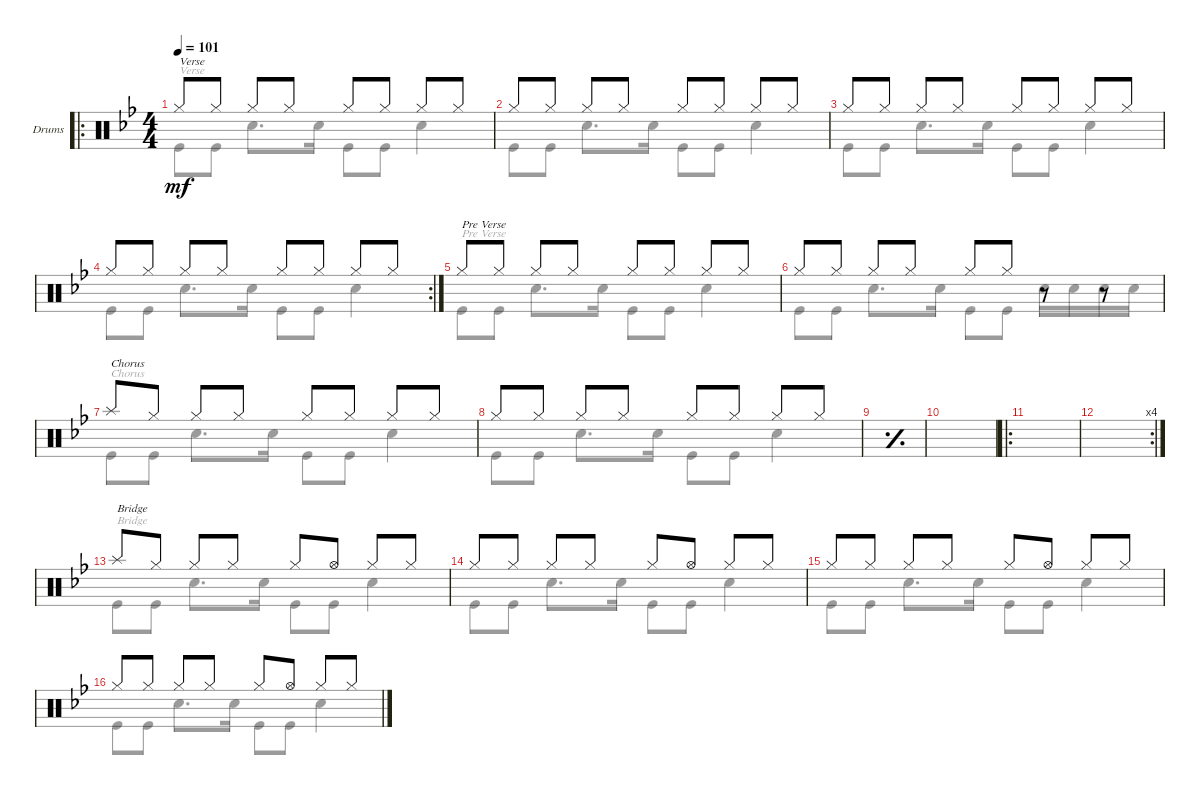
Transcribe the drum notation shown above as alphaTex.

\defaultSystemsLayout 4
\bracketExtendMode groupsimilarinstruments
\firstSystemTrackNameOrientation horizontal
\otherSystemsTrackNameOrientation horizontal
\track ("Drumkit" "Drums") {instrument percussion}
\staff {score}
\articulation defaults
\voice
\ro
\ts (4 4)
\tempo 101
\clef neutral
\ks gminor "Hi-Hat (closed)".8{txt "Verse" dy mf} "Hi-Hat (closed)".8 "Hi-Hat (closed)".8 "Hi-Hat (closed)".8 "Hi-Hat (closed)".8 "Hi-Hat (closed)".8 "Hi-Hat (closed)".8 "Hi-Hat (closed)".8
|
"Hi-Hat (closed)".8 "Hi-Hat (closed)".8 "Hi-Hat (closed)".8 "Hi-Hat (closed)".8 "Hi-Hat (closed)".8 "Hi-Hat (closed)".8 "Hi-Hat (closed)".8 "Hi-Hat (closed)".8 |
"Hi-Hat (closed)".8 "Hi-Hat (closed)".8 "Hi-Hat (closed)".8 "Hi-Hat (closed)".8 "Hi-Hat (closed)".8 "Hi-Hat (closed)".8 "Hi-Hat (closed)".8 "Hi-Hat (closed)".8 |
\rc 2 "Hi-Hat (closed)".8 "Hi-Hat (closed)".8 "Hi-Hat (closed)".8 "Hi-Hat (closed)".8 "Hi-Hat (closed)".8 "Hi-Hat (closed)".8 "Hi-Hat (closed)".8 "Hi-Hat (closed)".8
|
"Hi-Hat (closed)".8{txt "Pre Verse"} "Hi-Hat (closed)".8 "Hi-Hat (closed)".8 "Hi-Hat (closed)".8 "Hi-Hat (closed)".8 "Hi-Hat (closed)".8 "Hi-Hat (closed)".8 "Hi-Hat (closed)".8 |
"Hi-Hat (closed)".8 "Hi-Hat (closed)".8 "Hi-Hat (closed)".8 "Hi-Hat (closed)".8 "Hi-Hat (closed)".8 "Hi-Hat (closed)".8 r.8 r.8 |
"Splash (hit)".8{txt "Chorus"} "Hi-Hat (closed)".8 "Hi-Hat (closed)".8 "Hi-Hat (closed)".8 "Hi-Hat (closed)".8 "Hi-Hat (closed)".8 "Hi-Hat (closed)".8 "Hi-Hat (closed)".8 |
"Hi-Hat (closed)".8 "Hi-Hat (closed)".8 "Hi-Hat (closed)".8 "Hi-Hat (closed)".8 "Hi-Hat (closed)".8 "Hi-Hat (closed)".8 "Hi-Hat (closed)".8 "Hi-Hat (closed)".8 |
\simile simple
|
|
\ro
|
\rc 4
|
\simile none "Splash (hit)".8{txt "Bridge"} "Hi-Hat (closed)".8 "Hi-Hat (closed)".8 "Hi-Hat (closed)".8 "Hi-Hat (closed)".8 "Hi-Hat (open)".8 "Hi-Hat (closed)".8 "Hi-Hat (closed)".8
|
"Hi-Hat (closed)".8 "Hi-Hat (closed)".8 "Hi-Hat (closed)".8 "Hi-Hat (closed)".8 "Hi-Hat (closed)".8 "Hi-Hat (open)".8 "Hi-Hat (closed)".8 "Hi-Hat (closed)".8 |
"Hi-Hat (closed)".8 "Hi-Hat (closed)".8 "Hi-Hat (closed)".8 "Hi-Hat (closed)".8 "Hi-Hat (closed)".8 "Hi-Hat (open)".8 "Hi-Hat (closed)".8 "Hi-Hat (closed)".8 |
"Hi-Hat (closed)".8 "Hi-Hat (closed)".8 "Hi-Hat (closed)".8 "Hi-Hat (closed)".8 "Hi-Hat (closed)".8 "Hi-Hat (open)".8 "Hi-Hat (closed)".8 "Hi-Hat (closed)".8
\voice
\clef neutral
\ottava regular
\simile none
\ks gminor "Kick (hit)".8{txt "Verse" dy mf} "Kick (hit)".8 "Snare (hit) 2".8{d} "Snare (hit) 2".16 "Kick (hit)".8 "Kick (hit)".8 "Snare (hit) 2".4
|
"Kick (hit)".8 "Kick (hit)".8 "Snare (hit) 2".8{d} "Snare (hit) 2".16 "Kick (hit)".8 "Kick (hit)".8 "Snare (hit) 2".4 |
"Kick (hit)".8 "Kick (hit)".8 "Snare (hit) 2".8{d} "Snare (hit) 2".16 "Kick (hit)".8 "Kick (hit)".8 "Snare (hit) 2".4 |
"Kick (hit)".8 "Kick (hit)".8 "Snare (hit) 2".8{d} "Snare (hit) 2".16 "Kick (hit)".8 "Kick (hit)".8 "Snare (hit) 2".4 |
"Kick (hit)".8{txt "Pre Verse"} "Kick (hit)".8 "Snare (hit) 2".8{d} "Snare (hit) 2".16 "Kick (hit)".8 "Kick (hit)".8 "Snare (hit) 2".4 |
"Kick (hit)".8 "Kick (hit)".8 "Snare (hit) 2".8{d} "Snare (hit) 2".16 "Kick (hit)".8 "Kick (hit)".8 "Snare (hit) 2".16 "Snare (hit) 2".16 "Snare (hit) 2".16 "Snare (hit) 2".16 |
"Kick (hit)".8{txt "Chorus"} "Kick (hit)".8 "Snare (hit) 2".8{d} "Snare (hit) 2".16 "Kick (hit)".8 "Kick (hit)".8 "Snare (hit) 2".4 |
"Kick (hit)".8 "Kick (hit)".8 "Snare (hit) 2".8{d} "Snare (hit) 2".16 "Kick (hit)".8 "Kick (hit)".8 "Snare (hit) 2".4 |
\simile simple
|
|
|
|
\simile none "Kick (hit)".8{txt "Bridge"} "Kick (hit)".8 "Snare (hit) 2".8{d} "Snare (hit) 2".16 "Kick (hit)".8 "Kick (hit)".8 "Snare (hit) 2".4
|
"Kick (hit)".8 "Kick (hit)".8 "Snare (hit) 2".8{d} "Snare (hit) 2".16 "Kick (hit)".8 "Kick (hit)".8 "Snare (hit) 2".4 |
"Kick (hit)".8 "Kick (hit)".8 "Snare (hit) 2".8{d} "Snare (hit) 2".16 "Kick (hit)".8 "Kick (hit)".8 "Snare (hit) 2".4 |
"Kick (hit)".8 "Kick (hit)".8 "Snare (hit) 2".8{d} "Snare (hit) 2".16 "Kick (hit)".8 "Kick (hit)".8 "Snare (hit) 2".4
